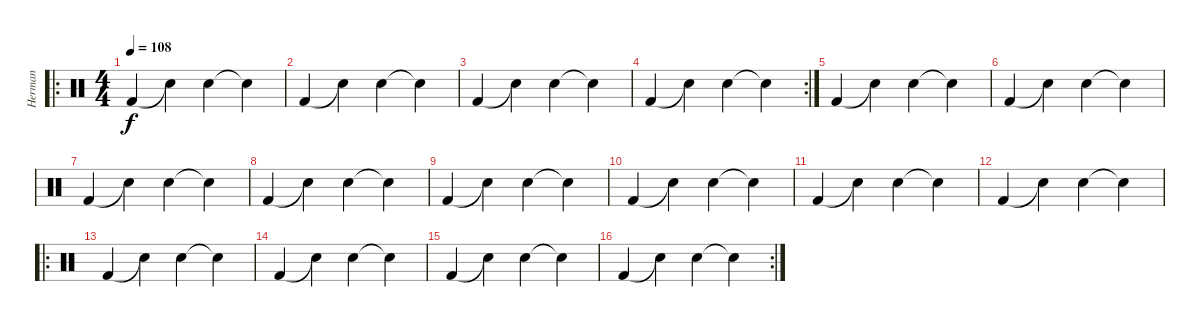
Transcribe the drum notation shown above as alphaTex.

\track ("Herman" "Herman") {instrument percussion}
\staff {score}
\articulation defaults
\ro
\ts (4 4)
\tempo 108
\clef neutral
\ks c "Kick (hit) 2".4{dy f} "Snare (hit)"{t}.4 "Snare (hit) 2".4 "Snare (hit)"{t}.4
|
"Kick (hit) 2".4 "Snare (hit)"{t}.4 "Snare (hit) 2".4 "Snare (hit)"{t}.4 |
"Kick (hit) 2".4 "Snare (hit)"{t}.4 "Snare (hit) 2".4 "Snare (hit)"{t}.4 |
\rc 2 "Kick (hit) 2".4 "Snare (hit)"{t}.4 "Snare (hit) 2".4 "Snare (hit)"{t}.4
|
"Kick (hit) 2".4 "Snare (hit)"{t}.4 "Snare (hit) 2".4 "Snare (hit)"{t}.4 |
"Kick (hit) 2".4 "Snare (hit)"{t}.4 "Snare (hit) 2".4 "Snare (hit)"{t}.4 |
"Kick (hit) 2".4 "Snare (hit)"{t}.4 "Snare (hit) 2".4 "Snare (hit)"{t}.4 |
"Kick (hit) 2".4 "Snare (hit)"{t}.4 "Snare (hit) 2".4 "Snare (hit)"{t}.4 |
"Kick (hit) 2".4 "Snare (hit)"{t}.4 "Snare (hit) 2".4 "Snare (hit)"{t}.4 |
"Kick (hit) 2".4 "Snare (hit)"{t}.4 "Snare (hit) 2".4 "Snare (hit)"{t}.4 |
"Kick (hit) 2".4 "Snare (hit)"{t}.4 "Snare (hit) 2".4 "Snare (hit)"{t}.4 |
"Kick (hit) 2".4 "Snare (hit)"{t}.4 "Snare (hit) 2".4 "Snare (hit)"{t}.4 |
\ro "Kick (hit) 2".4 "Snare (hit)"{t}.4 "Snare (hit) 2".4 "Snare (hit)"{t}.4
|
"Kick (hit) 2".4 "Snare (hit)"{t}.4 "Snare (hit) 2".4 "Snare (hit)"{t}.4 |
"Kick (hit) 2".4 "Snare (hit)"{t}.4 "Snare (hit) 2".4 "Snare (hit)"{t}.4 |
\rc 2 "Kick (hit) 2".4 "Snare (hit)"{t}.4 "Snare (hit) 2".4 "Snare (hit)"{t}.4
